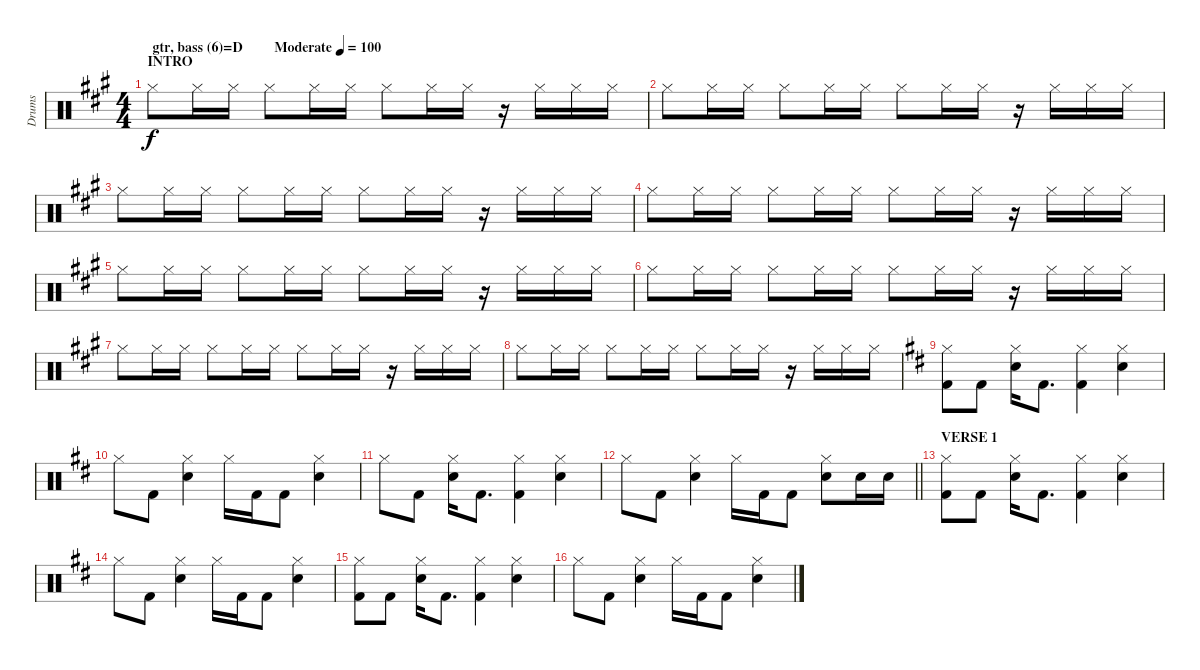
\track ("Drums" "Drums") {instrument percussion}
\staff {score}
\articulation defaults
\ts (4 4)
\section ("" "INTRO")
\tempo (100 "gtr, bass (6)=D         Moderate")
\clef neutral
\ks a "Hi-Hat (closed)".8{dy f} "Hi-Hat (closed)".16 "Hi-Hat (closed)".16 "Hi-Hat (closed)".8 "Hi-Hat (closed)".16 "Hi-Hat (closed)".16 "Hi-Hat (closed)".8 "Hi-Hat (closed)".16 "Hi-Hat (closed)".16
r.16 "Hi-Hat (closed)".16 "Hi-Hat (closed)".16 "Hi-Hat (closed)".16 |
"Hi-Hat (closed)".8 "Hi-Hat (closed)".16 "Hi-Hat (closed)".16 "Hi-Hat (closed)".8 "Hi-Hat (closed)".16 "Hi-Hat (closed)".16 "Hi-Hat (closed)".8 "Hi-Hat (closed)".16 "Hi-Hat (closed)".16 r.16 "Hi-Hat (closed)".16 "Hi-Hat (closed)".16 "Hi-Hat (closed)".16 |
"Hi-Hat (closed)".8 "Hi-Hat (closed)".16 "Hi-Hat (closed)".16 "Hi-Hat (closed)".8 "Hi-Hat (closed)".16 "Hi-Hat (closed)".16 "Hi-Hat (closed)".8 "Hi-Hat (closed)".16 "Hi-Hat (closed)".16 r.16 "Hi-Hat (closed)".16 "Hi-Hat (closed)".16 "Hi-Hat (closed)".16 |
"Hi-Hat (closed)".8 "Hi-Hat (closed)".16 "Hi-Hat (closed)".16 "Hi-Hat (closed)".8 "Hi-Hat (closed)".16 "Hi-Hat (closed)".16 "Hi-Hat (closed)".8 "Hi-Hat (closed)".16 "Hi-Hat (closed)".16 r.16 "Hi-Hat (closed)".16 "Hi-Hat (closed)".16 "Hi-Hat (closed)".16 |
"Hi-Hat (closed)".8 "Hi-Hat (closed)".16 "Hi-Hat (closed)".16 "Hi-Hat (closed)".8 "Hi-Hat (closed)".16 "Hi-Hat (closed)".16 "Hi-Hat (closed)".8 "Hi-Hat (closed)".16 "Hi-Hat (closed)".16 r.16 "Hi-Hat (closed)".16 "Hi-Hat (closed)".16 "Hi-Hat (closed)".16 |
"Hi-Hat (closed)".8 "Hi-Hat (closed)".16 "Hi-Hat (closed)".16 "Hi-Hat (closed)".8 "Hi-Hat (closed)".16 "Hi-Hat (closed)".16 "Hi-Hat (closed)".8 "Hi-Hat (closed)".16 "Hi-Hat (closed)".16 r.16 "Hi-Hat (closed)".16 "Hi-Hat (closed)".16 "Hi-Hat (closed)".16 |
"Hi-Hat (closed)".8 "Hi-Hat (closed)".16 "Hi-Hat (closed)".16 "Hi-Hat (closed)".8 "Hi-Hat (closed)".16 "Hi-Hat (closed)".16 "Hi-Hat (closed)".8 "Hi-Hat (closed)".16 "Hi-Hat (closed)".16 r.16 "Hi-Hat (closed)".16 "Hi-Hat (closed)".16 "Hi-Hat (closed)".16 |
"Hi-Hat (closed)".8 "Hi-Hat (closed)".16 "Hi-Hat (closed)".16 "Hi-Hat (closed)".8 "Hi-Hat (closed)".16 "Hi-Hat (closed)".16 "Hi-Hat (closed)".8 "Hi-Hat (closed)".16 "Hi-Hat (closed)".16 r.16 "Hi-Hat (closed)".16 "Hi-Hat (closed)".16 "Hi-Hat (closed)".16 |
\ks d
("Hi-Hat (closed)" "Kick (hit) 2").8 "Kick (hit) 2".8 ("Hi-Hat (closed)" "Electric Snare (hit)").16 "Kick (hit) 2".8{d} ("Hi-Hat (closed)" "Kick (hit) 2").4 ("Hi-Hat (closed)" "Electric Snare (hit)").4 |
"Hi-Hat (closed)".8 "Kick (hit) 2".8 ("Hi-Hat (closed)" "Electric Snare (hit)").4 "Hi-Hat (closed)".16 "Kick (hit) 2".16 "Kick (hit) 2".8 ("Hi-Hat (closed)" "Electric Snare (hit)").4 |
"Hi-Hat (closed)".8 "Kick (hit) 2".8 ("Hi-Hat (closed)" "Electric Snare (hit)").16 "Kick (hit) 2".8{d} ("Hi-Hat (closed)" "Kick (hit) 2").4 ("Hi-Hat (closed)" "Electric Snare (hit)").4 |
\barLineRight lightlight "Hi-Hat (closed)".8 "Kick (hit) 2".8
("Hi-Hat (closed)" "Electric Snare (hit)").4 "Hi-Hat (closed)".16 "Kick (hit) 2".16 "Kick (hit) 2".8 ("Hi-Hat (closed)" "Electric Snare (hit)").8 "Electric Snare (hit)".16 "Electric Snare (hit)".16 |
\section ("" "VERSE 1")
("Hi-Hat (closed)" "Kick (hit) 2").8 "Kick (hit) 2".8 ("Hi-Hat (closed)" "Electric Snare (hit)").16 "Kick (hit) 2".8{d} ("Hi-Hat (closed)" "Kick (hit) 2").4 ("Hi-Hat (closed)" "Electric Snare (hit)").4 |
"Hi-Hat (closed)".8 "Kick (hit) 2".8 ("Hi-Hat (closed)" "Electric Snare (hit)").4 "Hi-Hat (closed)".16 "Kick (hit) 2".16 "Kick (hit) 2".8 ("Hi-Hat (closed)" "Electric Snare (hit)").4 |
("Hi-Hat (closed)" "Kick (hit) 2").8 "Kick (hit) 2".8 ("Hi-Hat (closed)" "Electric Snare (hit)").16 "Kick (hit) 2".8{d} ("Hi-Hat (closed)" "Kick (hit) 2").4 ("Hi-Hat (closed)" "Electric Snare (hit)").4 |
"Hi-Hat (closed)".8 "Kick (hit) 2".8 ("Hi-Hat (closed)" "Electric Snare (hit)").4 "Hi-Hat (closed)".16 "Kick (hit) 2".16 "Kick (hit) 2".8 ("Hi-Hat (closed)" "Electric Snare (hit)").4
